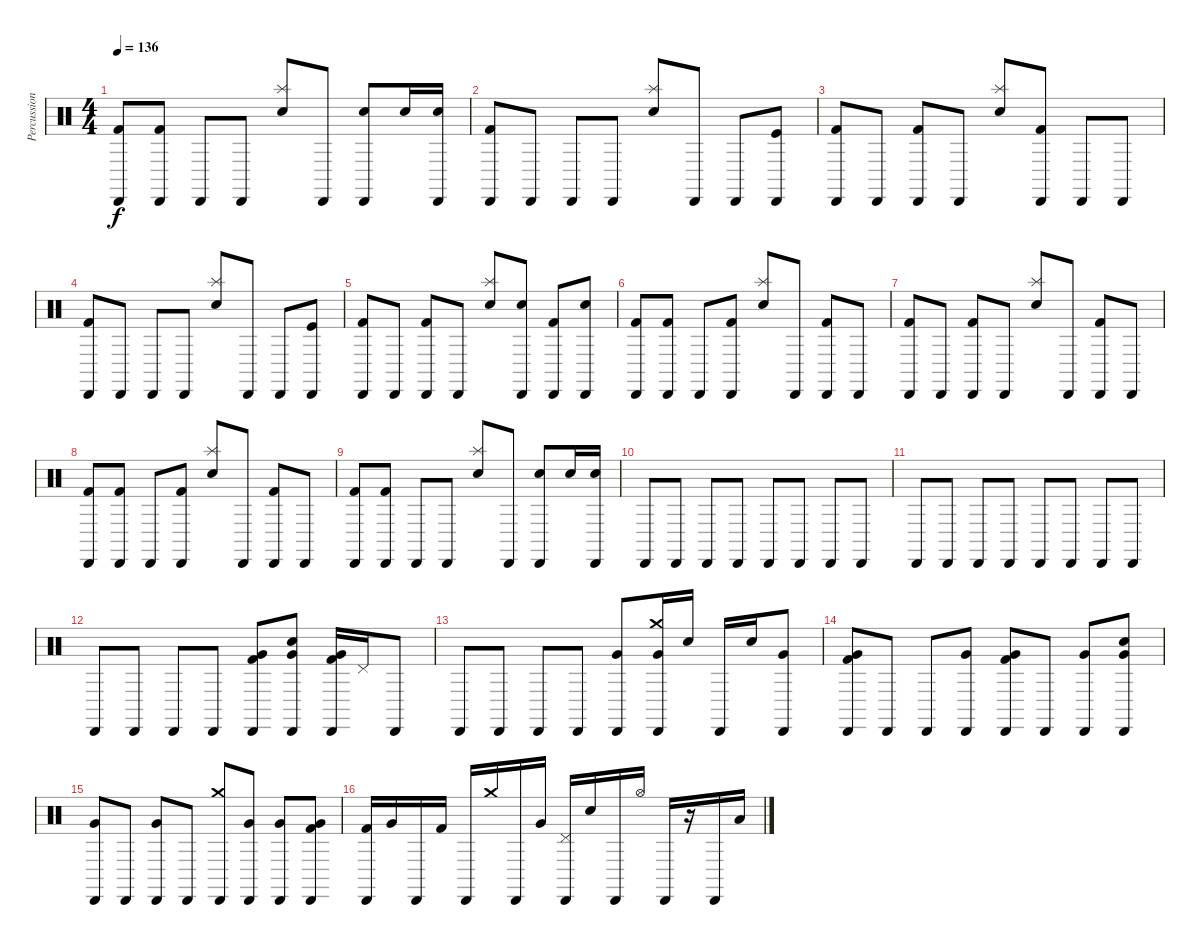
\track ("Percussion 2" "Percussion") {instrument percussion}
\staff {score}
\articulation defaults
\ts (4 4)
\tempo 136
\clef neutral
\ks c
("Kick (hit) 2" "Cabasa (hit)").8{dy f} ("Kick (hit) 2" "Cabasa (hit)").8 "Cabasa (hit)".8 "Cabasa (hit)".8 ("Snare (hit) 2" "Splash (hit)").8 "Cabasa (hit)".8 ("Snare (hit) 2" "Cabasa (hit)").8 "Snare (hit) 2".16 ("Snare (hit) 2" "Cabasa (hit)").16 |
("Kick (hit) 2" "Cabasa (hit)").8 "Cabasa (hit)".8 "Cabasa (hit)".8 "Cabasa (hit)".8 ("Snare (hit) 2" "Splash (hit)").8 "Cabasa (hit)".8 "Cabasa (hit)".8 ("Kick (hit)" "Cabasa (hit)").8 |
("Kick (hit) 2" "Cabasa (hit)").8 "Cabasa (hit)".8 ("Kick (hit) 2" "Cabasa (hit)").8 "Cabasa (hit)".8 ("Snare (hit) 2" "Splash (hit)").8 ("Kick (hit) 2" "Cabasa (hit)").8 "Cabasa (hit)".8 "Cabasa (hit)".8 |
("Kick (hit) 2" "Cabasa (hit)").8 "Cabasa (hit)".8 "Cabasa (hit)".8 "Cabasa (hit)".8 ("Snare (hit) 2" "Splash (hit)").8 "Cabasa (hit)".8 "Cabasa (hit)".8 ("Kick (hit)" "Cabasa (hit)").8 |
("Kick (hit) 2" "Cabasa (hit)").8 "Cabasa (hit)".8 ("Kick (hit) 2" "Cabasa (hit)").8 "Cabasa (hit)".8 ("Snare (hit) 2" "Splash (hit)").8 ("Snare (hit) 2" "Cabasa (hit)").8 ("Kick (hit) 2" "Cabasa (hit)").8 ("Snare (hit) 2" "Cabasa (hit)").8 |
("Kick (hit) 2" "Cabasa (hit)").8 ("Kick (hit) 2" "Cabasa (hit)").8 "Cabasa (hit)".8 ("Kick (hit) 2" "Cabasa (hit)").8 ("Snare (hit) 2" "Splash (hit)").8 "Cabasa (hit)".8 ("Kick (hit) 2" "Cabasa (hit)").8 "Cabasa (hit)".8 |
("Kick (hit) 2" "Cabasa (hit)").8 "Cabasa (hit)".8 ("Kick (hit) 2" "Cabasa (hit)").8 "Cabasa (hit)".8 ("Snare (hit) 2" "Splash (hit)").8 "Cabasa (hit)".8 ("Kick (hit) 2" "Cabasa (hit)").8 "Cabasa (hit)".8 |
("Kick (hit) 2" "Cabasa (hit)").8 ("Kick (hit) 2" "Cabasa (hit)").8 "Cabasa (hit)".8 ("Kick (hit) 2" "Cabasa (hit)").8 ("Snare (hit) 2" "Splash (hit)").8 "Cabasa (hit)".8 ("Kick (hit) 2" "Cabasa (hit)").8 "Cabasa (hit)".8 |
("Kick (hit) 2" "Cabasa (hit)").8 ("Kick (hit) 2" "Cabasa (hit)").8 "Cabasa (hit)".8 "Cabasa (hit)".8 ("Snare (hit) 2" "Splash (hit)").8 "Cabasa (hit)".8 ("Snare (hit) 2" "Cabasa (hit)").8 "Snare (hit) 2".16 ("Snare (hit) 2" "Cabasa (hit)").16 |
"Cabasa (hit)".8 "Cabasa (hit)".8 "Cabasa (hit)".8 "Cabasa (hit)".8 "Cabasa (hit)".8 "Cabasa (hit)".8 "Cabasa (hit)".8 "Cabasa (hit)".8 |
"Cabasa (hit)".8 "Cabasa (hit)".8 "Cabasa (hit)".8 "Cabasa (hit)".8 "Cabasa (hit)".8 "Cabasa (hit)".8 "Cabasa (hit)".8 "Cabasa (hit)".8 |
"Cabasa (hit)".8 "Cabasa (hit)".8 "Cabasa (hit)".8 "Cabasa (hit)".8 ("Kick (hit) 2" "Very Low Tom (hit)" "Cabasa (hit)").8 ("Snare (hit) 2" "Very Low Tom (hit)" "Cabasa (hit)").8 ("Kick (hit) 2" "Very Low Tom (hit)" "Cabasa (hit)").16 "Pedal Hi-Hat (hit)".16 "Cabasa (hit)".8 |
"Cabasa (hit)".8 "Cabasa (hit)".8 "Cabasa (hit)".8 "Cabasa (hit)".8 ("Very Low Tom (hit)" "Cabasa (hit)").8 ("Very Low Tom (hit)" "Crash medium (hit)" "Cabasa (hit)").16 "Snare (hit) 2".16 "Cabasa (hit)".16 "Snare (hit) 2".16 ("Very Low Tom (hit)" "Cabasa (hit)").8 |
("Kick (hit) 2" "Very Low Tom (hit)" "Cabasa (hit)").8 "Cabasa (hit)".8 "Cabasa (hit)".8 ("Very Low Tom (hit)" "Cabasa (hit)").8 ("Kick (hit) 2" "Very Low Tom (hit)" "Cabasa (hit)").8 "Cabasa (hit)".8 ("Very Low Tom (hit)" "Cabasa (hit)").8 ("Snare (hit) 2" "Very Low Tom (hit)" "Cabasa (hit)").8 |
("Very Low Tom (hit)" "Cabasa (hit)").8 "Cabasa (hit)".8 ("Very Low Tom (hit)" "Cabasa (hit)").8 "Cabasa (hit)".8 ("Crash medium (hit)" "Cabasa (hit)").8 ("Very Low Tom (hit)" "Cabasa (hit)").8 ("Very Low Tom (hit)" "Cabasa (hit)").8 ("Kick (hit) 2" "Very Low Tom (hit)" "Cabasa (hit)").8{balance 0} |
("Kick (hit) 2" "Cabasa (hit)").16{balance 16} "Very Low Tom (hit)".16 "Cabasa (hit)".16 "Kick (hit) 2".16 "Cabasa (hit)".16 "Crash medium (hit)".16 "Cabasa (hit)".16 "Very Low Tom (hit)".16 ("Pedal Hi-Hat (hit)" "Cabasa (hit)").16 "Snare (hit) 2".16 "Cabasa (hit)".16 "Hi-Hat (open)".16 "Cabasa (hit)".16 r.16 "Cabasa (hit)".16 "Low Floor Tom (hit)".16
